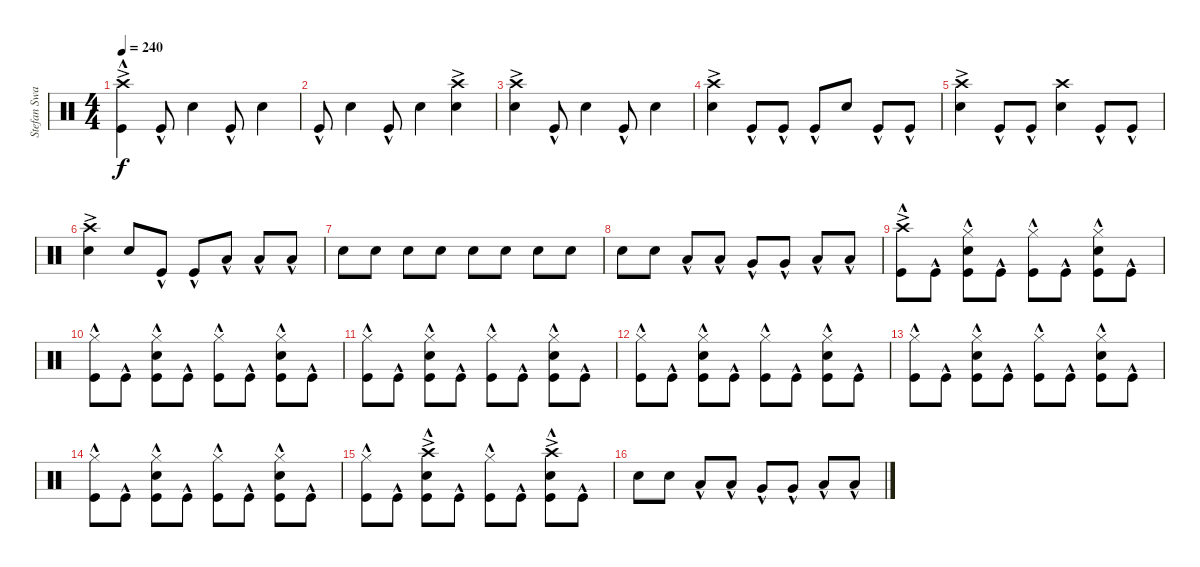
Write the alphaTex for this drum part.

\track ("Stefan Swarztmann" "Stefan Swa") {instrument percussion}
\staff {score}
\articulation defaults
\ts (4 4)
\tempo 240
\clef neutral
\ks c
("Crash high (hit)"{ac} "Kick (hit)"{hac}).4{dy f} "Kick (hit)"{hac}.8 "Snare (hit) 2".4 "Kick (hit)"{hac}.8 "Snare (hit) 2".4 |
"Kick (hit)"{hac}.8 "Snare (hit) 2".4 "Kick (hit)"{hac}.8 "Snare (hit) 2".4 ("Crash high (hit)"{ac} "Snare (hit) 2").4 |
("Crash high (hit)"{ac} "Snare (hit) 2").4 "Kick (hit)"{hac}.8 "Snare (hit) 2".4 "Kick (hit)"{hac}.8 "Snare (hit) 2".4 |
("Crash high (hit)"{ac} "Snare (hit) 2").4 "Kick (hit)"{hac}.8 "Kick (hit)"{hac}.8 "Kick (hit)"{hac}.8 "Snare (hit) 2".8 "Kick (hit)"{hac}.8 "Kick (hit)"{hac}.8 |
("Crash high (hit)"{ac} "Snare (hit) 2").4 "Kick (hit)"{hac}.8 "Kick (hit)"{hac}.8 ("Crash high (hit)" "Snare (hit) 2").4 "Kick (hit)"{hac}.8 "Kick (hit)"{hac}.8 |
("Crash high (hit)"{ac} "Snare (hit) 2").4 "Snare (hit) 2".8 "Kick (hit)"{hac}.8 "Kick (hit)"{hac}.8 "Low Tom (hit)"{hac}.8 "Low Tom (hit)"{hac}.8 "Low Tom (hit)"{hac}.8 |
"Snare (hit) 2".8 "Snare (hit) 2".8 "Snare (hit) 2".8 "Snare (hit) 2".8 "Snare (hit) 2".8 "Snare (hit) 2".8 "Snare (hit) 2".8 "Snare (hit) 2".8 |
"Snare (hit) 2".8 "Snare (hit) 2".8 "Low Tom (hit)"{hac}.8 "Low Tom (hit)"{hac}.8 "Very Low Tom (hit)"{hac}.8 "Very Low Tom (hit)"{hac}.8 "Low Floor Tom (hit)"{hac}.8 "Low Floor Tom (hit)"{hac}.8 |
("Crash high (hit)"{ac} "Kick (hit)"{hac}).8 "Kick (hit)"{hac}.8 ("Hi-Hat (closed)" "Snare (hit) 2" "Kick (hit)"{hac}).8 "Kick (hit)"{hac}.8 ("Hi-Hat (closed)" "Kick (hit)"{hac}).8 "Kick (hit)"{hac}.8 ("Hi-Hat (closed)" "Snare (hit) 2" "Kick (hit)"{hac}).8 "Kick (hit)"{hac}.8 |
("Hi-Hat (closed)" "Kick (hit)"{hac}).8 "Kick (hit)"{hac}.8 ("Hi-Hat (closed)" "Snare (hit) 2" "Kick (hit)"{hac}).8 "Kick (hit)"{hac}.8 ("Hi-Hat (closed)" "Kick (hit)"{hac}).8 "Kick (hit)"{hac}.8 ("Hi-Hat (closed)" "Snare (hit) 2" "Kick (hit)"{hac}).8 "Kick (hit)"{hac}.8 |
("Hi-Hat (closed)" "Kick (hit)"{hac}).8 "Kick (hit)"{hac}.8 ("Hi-Hat (closed)" "Snare (hit) 2" "Kick (hit)"{hac}).8 "Kick (hit)"{hac}.8 ("Hi-Hat (closed)" "Kick (hit)"{hac}).8 "Kick (hit)"{hac}.8 ("Hi-Hat (closed)" "Snare (hit) 2" "Kick (hit)"{hac}).8 "Kick (hit)"{hac}.8 |
("Hi-Hat (closed)" "Kick (hit)"{hac}).8 "Kick (hit)"{hac}.8 ("Hi-Hat (closed)" "Snare (hit) 2" "Kick (hit)"{hac}).8 "Kick (hit)"{hac}.8 ("Hi-Hat (closed)" "Kick (hit)"{hac}).8 "Kick (hit)"{hac}.8 ("Hi-Hat (closed)" "Snare (hit) 2" "Kick (hit)"{hac}).8 "Kick (hit)"{hac}.8 |
("Hi-Hat (closed)" "Kick (hit)"{hac}).8 "Kick (hit)"{hac}.8 ("Hi-Hat (closed)" "Snare (hit) 2" "Kick (hit)"{hac}).8 "Kick (hit)"{hac}.8 ("Hi-Hat (closed)" "Kick (hit)"{hac}).8 "Kick (hit)"{hac}.8 ("Hi-Hat (closed)" "Snare (hit) 2" "Kick (hit)"{hac}).8 "Kick (hit)"{hac}.8 |
("Hi-Hat (closed)" "Kick (hit)"{hac}).8 "Kick (hit)"{hac}.8 ("Hi-Hat (closed)" "Snare (hit) 2" "Kick (hit)"{hac}).8 "Kick (hit)"{hac}.8 ("Hi-Hat (closed)" "Kick (hit)"{hac}).8 "Kick (hit)"{hac}.8 ("Hi-Hat (closed)" "Snare (hit) 2" "Kick (hit)"{hac}).8 "Kick (hit)"{hac}.8 |
("Hi-Hat (closed)" "Kick (hit)"{hac}).8 "Kick (hit)"{hac}.8 ("Crash high (hit)"{ac} "Snare (hit) 2" "Kick (hit)"{hac}).8 "Kick (hit)"{hac}.8 ("Hi-Hat (closed)" "Kick (hit)"{hac}).8 "Kick (hit)"{hac}.8 ("Crash high (hit)"{ac} "Snare (hit) 2" "Kick (hit)"{hac}).8 "Kick (hit)"{hac}.8 |
"Snare (hit) 2".8 "Snare (hit) 2".8 "Low Tom (hit)"{hac}.8 "Low Tom (hit)"{hac}.8 "Very Low Tom (hit)"{hac}.8 "Very Low Tom (hit)"{hac}.8 "Low Floor Tom (hit)"{hac}.8 "Low Floor Tom (hit)"{hac}.8
